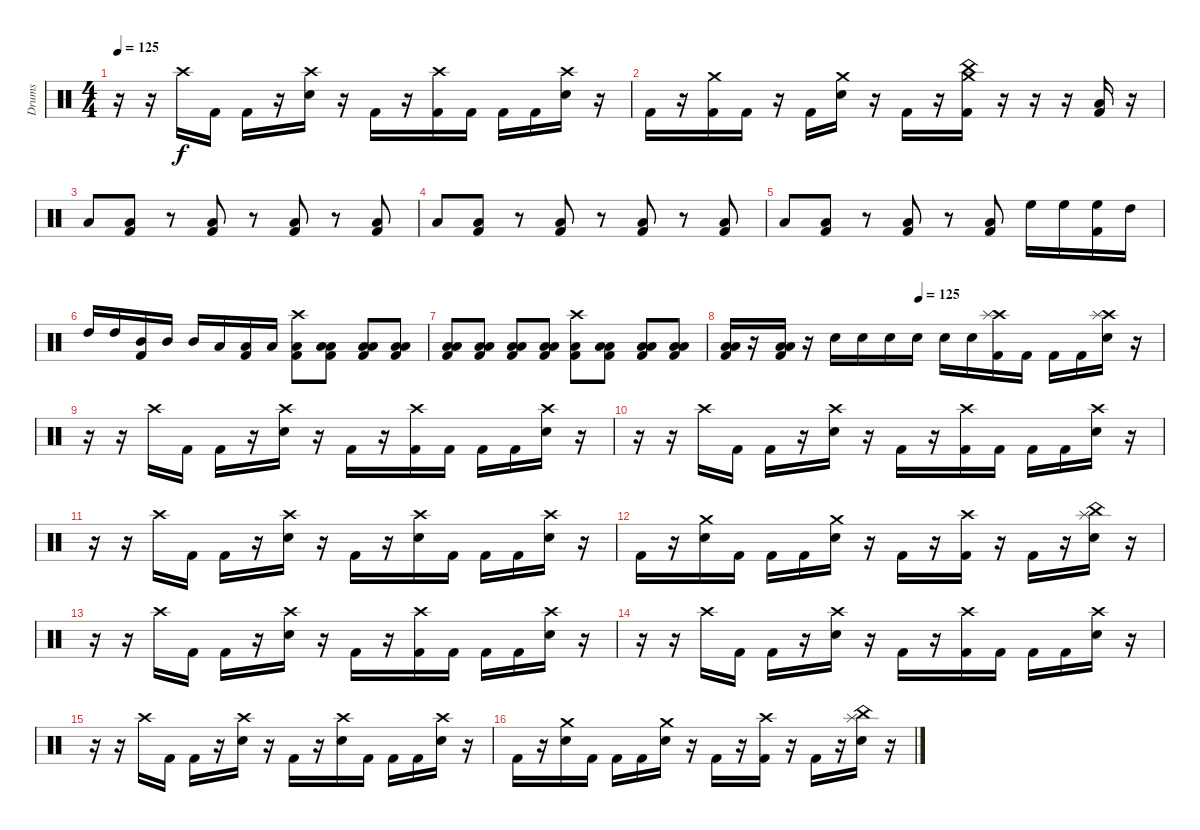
\track ("Drums" "Drums") {instrument percussion}
\staff {score}
\articulation defaults
\ts (4 4)
\tempo 125
\clef neutral
\ks c
r.16{dy f} r.16 "Crash high (hit)".16 "Kick (hit) 2".16 "Kick (hit) 2".16 r.16 ("Crash high (hit)" "Snare (hit) 2").16 r.16 "Kick (hit) 2".16 r.16 ("Crash high (hit)" "Kick (hit) 2").16 "Kick (hit) 2".16 "Kick (hit) 2".16 "Kick (hit) 2".16 ("Crash high (hit)" "Snare (hit) 2").16 r.16 |
"Kick (hit) 2".16 r.16 ("Crash medium (hit)" "Kick (hit) 2").16 "Kick (hit) 2".16 r.16 "Kick (hit) 2".16 ("Crash medium (hit)" "Snare (hit) 2").16 r.16 "Kick (hit) 2".16 r.16 ("China (hit)" "Crash medium (hit)" "Kick (hit) 2").16 r.16 r.16 r.16 ("Low Floor Tom (hit)" "Kick (hit) 2").16 r.16 |
"Low Tom (hit)".8 ("Low Floor Tom (hit)" "Kick (hit) 2").8 r.8 ("Low Floor Tom (hit)" "Kick (hit) 2").8 r.8 ("Low Floor Tom (hit)" "Kick (hit) 2").8 r.8 ("Low Floor Tom (hit)" "Kick (hit) 2").8 |
"Low Tom (hit)".8 ("Low Floor Tom (hit)" "Kick (hit) 2").8 r.8 ("Low Floor Tom (hit)" "Kick (hit) 2").8 r.8 ("Low Floor Tom (hit)" "Kick (hit) 2").8 r.8 ("Low Floor Tom (hit)" "Kick (hit) 2").8 |
"Low Tom (hit)".8 ("Low Floor Tom (hit)" "Kick (hit) 2").8 r.8 ("Low Floor Tom (hit)" "Kick (hit) 2").8 r.8 ("Low Floor Tom (hit)" "Kick (hit) 2").8 "High Floor Tom (hit)".16 "High Floor Tom (hit)".16 ("High Floor Tom (hit)" "Kick (hit) 2").16 "High Tom (hit)".16 |
"High Tom (hit)".16 "High Tom (hit)".16 ("Mid Tom (hit)" "Kick (hit) 2").16 "Mid Tom (hit)".16 "Mid Tom (hit)".16 "Low Tom (hit)".16 ("Low Tom (hit)" "Kick (hit) 2").16 "Low Tom (hit)".16 ("Crash high (hit)" "Low Floor Tom (hit)" "Kick (hit) 2").8 ("Low Tom (hit)" "Low Floor Tom (hit)" "Kick (hit) 2").8 ("Low Tom (hit)" "Low Floor Tom (hit)" "Kick (hit) 2").8 ("Low Tom (hit)" "Low Floor Tom (hit)" "Kick (hit) 2").8 |
("Low Tom (hit)" "Low Floor Tom (hit)" "Kick (hit) 2").8 ("Low Tom (hit)" "Low Floor Tom (hit)" "Kick (hit) 2").8 ("Low Tom (hit)" "Low Floor Tom (hit)" "Kick (hit) 2").8 ("Low Tom (hit)" "Low Floor Tom (hit)" "Kick (hit) 2").8 ("Crash high (hit)" "Low Floor Tom (hit)" "Kick (hit) 2").8 ("Low Tom (hit)" "Low Floor Tom (hit)" "Kick (hit) 2").8 ("Low Tom (hit)" "Low Floor Tom (hit)" "Kick (hit) 2").8 ("Low Tom (hit)" "Low Floor Tom (hit)" "Kick (hit) 2").8 |
\tempo (125 0.4375)
("Low Tom (hit)" "Low Floor Tom (hit)" "Kick (hit) 2").16 r.16 ("Low Tom (hit)" "Low Floor Tom (hit)" "Kick (hit) 2").16 r.16 "Snare (hit) 2".16 "Snare (hit) 2".16 "Snare (hit) 2".16 "Snare (hit) 2".16 "Snare (hit) 2".16 "Snare (hit) 2".16 ("Crash high (hit)" "Splash (hit)" "Kick (hit) 2").16 "Kick (hit) 2".16 "Kick (hit) 2".16 "Kick (hit) 2".16 ("Crash high (hit)" "Splash (hit)" "Snare (hit) 2").16 r.16 |
r.16 r.16 "Crash high (hit)".16 "Kick (hit) 2".16 "Kick (hit) 2".16 r.16 ("Crash high (hit)" "Snare (hit) 2").16 r.16 "Kick (hit) 2".16 r.16 ("Crash high (hit)" "Kick (hit) 2").16 "Kick (hit) 2".16 "Kick (hit) 2".16 "Kick (hit) 2".16 ("Crash high (hit)" "Snare (hit) 2").16 r.16 |
r.16 r.16 "Crash high (hit)".16 "Kick (hit) 2".16 "Kick (hit) 2".16 r.16 ("Crash high (hit)" "Snare (hit) 2").16 r.16 "Kick (hit) 2".16 r.16 ("Crash high (hit)" "Kick (hit) 2").16 "Kick (hit) 2".16 "Kick (hit) 2".16 "Kick (hit) 2".16 ("Crash high (hit)" "Snare (hit) 2").16 r.16 |
r.16 r.16 "Crash high (hit)".16 "Kick (hit) 2".16 "Kick (hit) 2".16 r.16 ("Crash high (hit)" "Snare (hit) 2").16 r.16 "Kick (hit) 2".16 r.16 ("Crash high (hit)" "Snare (hit) 2").16 "Kick (hit) 2".16 "Kick (hit) 2".16 "Kick (hit) 2".16 ("Crash high (hit)" "Snare (hit) 2").16 r.16 |
"Kick (hit) 2".16 r.16 ("Crash medium (hit)" "Snare (hit) 2").16 "Kick (hit) 2".16 "Kick (hit) 2".16 "Kick (hit) 2".16 ("Crash medium (hit)" "Snare (hit) 2").16 r.16 "Kick (hit) 2".16 r.16 ("Crash high (hit)" "Kick (hit) 2").16 r.16 "Kick (hit) 2".16 r.16 ("China (hit)" "Splash (hit)" "Snare (hit) 2").16 r.16 |
r.16 r.16 "Crash high (hit)".16 "Kick (hit) 2".16 "Kick (hit) 2".16 r.16 ("Crash high (hit)" "Snare (hit) 2").16 r.16 "Kick (hit) 2".16 r.16 ("Crash high (hit)" "Kick (hit) 2").16 "Kick (hit) 2".16 "Kick (hit) 2".16 "Kick (hit) 2".16 ("Crash high (hit)" "Snare (hit) 2").16 r.16 |
r.16 r.16 "Crash high (hit)".16 "Kick (hit) 2".16 "Kick (hit) 2".16 r.16 ("Crash high (hit)" "Snare (hit) 2").16 r.16 "Kick (hit) 2".16 r.16 ("Crash high (hit)" "Kick (hit) 2").16 "Kick (hit) 2".16 "Kick (hit) 2".16 "Kick (hit) 2".16 ("Crash high (hit)" "Snare (hit) 2").16 r.16 |
r.16 r.16 "Crash high (hit)".16 "Kick (hit) 2".16 "Kick (hit) 2".16 r.16 ("Crash high (hit)" "Snare (hit) 2").16 r.16 "Kick (hit) 2".16 r.16 ("Crash high (hit)" "Snare (hit) 2").16 "Kick (hit) 2".16 "Kick (hit) 2".16 "Kick (hit) 2".16 ("Crash high (hit)" "Snare (hit) 2").16 r.16 |
"Kick (hit) 2".16 r.16 ("Crash medium (hit)" "Snare (hit) 2").16 "Kick (hit) 2".16 "Kick (hit) 2".16 "Kick (hit) 2".16 ("Crash medium (hit)" "Snare (hit) 2").16 r.16 "Kick (hit) 2".16 r.16 ("Crash high (hit)" "Kick (hit) 2").16 r.16 "Kick (hit) 2".16 r.16 ("China (hit)" "Splash (hit)" "Snare (hit) 2").16 r.16
